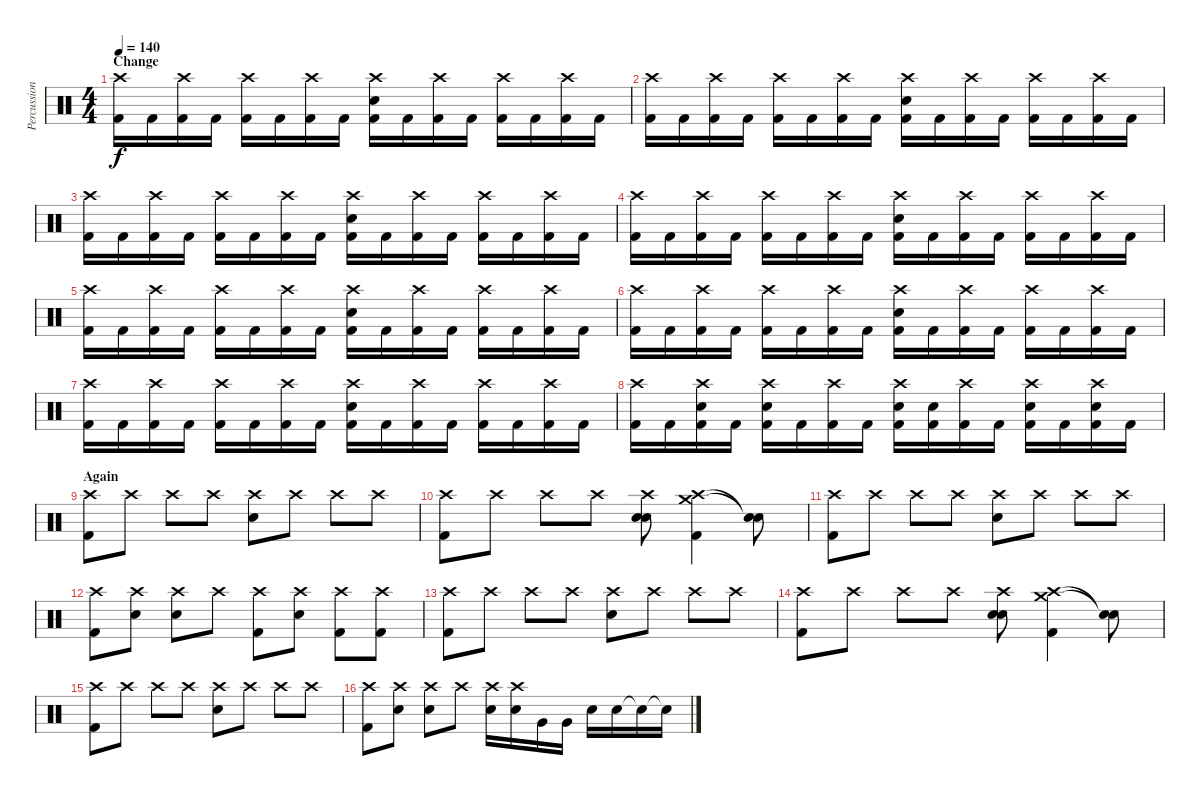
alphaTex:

\track ("Percussion" "Percussion") {instrument percussion}
\staff {score}
\articulation defaults
\ts (4 4)
\section ("" "Change")
\tempo 140
\clef neutral
\ks c
("Crash high (hit)" "Kick (hit) 2").16{dy f} "Kick (hit) 2".16 ("Crash high (hit)" "Kick (hit) 2").16 "Kick (hit) 2".16 ("Crash high (hit)" "Kick (hit) 2").16 "Kick (hit) 2".16 ("Crash high (hit)" "Kick (hit) 2").16 "Kick (hit) 2".16 ("Crash high (hit)" "Electric Snare (hit)" "Kick (hit) 2").16 "Kick (hit) 2".16 ("Crash high (hit)" "Kick (hit) 2").16 "Kick (hit) 2".16 ("Crash high (hit)" "Kick (hit) 2").16 "Kick (hit) 2".16 ("Crash high (hit)" "Kick (hit) 2").16 "Kick (hit) 2".16 |
("Crash high (hit)" "Kick (hit) 2").16 "Kick (hit) 2".16 ("Crash high (hit)" "Kick (hit) 2").16 "Kick (hit) 2".16 ("Crash high (hit)" "Kick (hit) 2").16 "Kick (hit) 2".16 ("Crash high (hit)" "Kick (hit) 2").16 "Kick (hit) 2".16 ("Crash high (hit)" "Electric Snare (hit)" "Kick (hit) 2").16 "Kick (hit) 2".16 ("Crash high (hit)" "Kick (hit) 2").16 "Kick (hit) 2".16 ("Crash high (hit)" "Kick (hit) 2").16 "Kick (hit) 2".16 ("Crash high (hit)" "Kick (hit) 2").16 "Kick (hit) 2".16 |
("Crash high (hit)" "Kick (hit) 2").16 "Kick (hit) 2".16 ("Crash high (hit)" "Kick (hit) 2").16 "Kick (hit) 2".16 ("Crash high (hit)" "Kick (hit) 2").16 "Kick (hit) 2".16 ("Crash high (hit)" "Kick (hit) 2").16 "Kick (hit) 2".16 ("Crash high (hit)" "Electric Snare (hit)" "Kick (hit) 2").16 "Kick (hit) 2".16 ("Crash high (hit)" "Kick (hit) 2").16 "Kick (hit) 2".16 ("Crash high (hit)" "Kick (hit) 2").16 "Kick (hit) 2".16 ("Crash high (hit)" "Kick (hit) 2").16 "Kick (hit) 2".16 |
("Crash high (hit)" "Kick (hit) 2").16 "Kick (hit) 2".16 ("Crash high (hit)" "Kick (hit) 2").16 "Kick (hit) 2".16 ("Crash high (hit)" "Kick (hit) 2").16 "Kick (hit) 2".16 ("Crash high (hit)" "Kick (hit) 2").16 "Kick (hit) 2".16 ("Crash high (hit)" "Electric Snare (hit)" "Kick (hit) 2").16 "Kick (hit) 2".16 ("Crash high (hit)" "Kick (hit) 2").16 "Kick (hit) 2".16 ("Crash high (hit)" "Kick (hit) 2").16 "Kick (hit) 2".16 ("Crash high (hit)" "Kick (hit) 2").16 "Kick (hit) 2".16 |
("Crash high (hit)" "Kick (hit) 2").16 "Kick (hit) 2".16 ("Crash high (hit)" "Kick (hit) 2").16 "Kick (hit) 2".16 ("Crash high (hit)" "Kick (hit) 2").16 "Kick (hit) 2".16 ("Crash high (hit)" "Kick (hit) 2").16 "Kick (hit) 2".16 ("Crash high (hit)" "Electric Snare (hit)" "Kick (hit) 2").16 "Kick (hit) 2".16 ("Crash high (hit)" "Kick (hit) 2").16 "Kick (hit) 2".16 ("Crash high (hit)" "Kick (hit) 2").16 "Kick (hit) 2".16 ("Crash high (hit)" "Kick (hit) 2").16 "Kick (hit) 2".16 |
("Crash high (hit)" "Kick (hit) 2").16 "Kick (hit) 2".16 ("Crash high (hit)" "Kick (hit) 2").16 "Kick (hit) 2".16 ("Crash high (hit)" "Kick (hit) 2").16 "Kick (hit) 2".16 ("Crash high (hit)" "Kick (hit) 2").16 "Kick (hit) 2".16 ("Crash high (hit)" "Electric Snare (hit)" "Kick (hit) 2").16 "Kick (hit) 2".16 ("Crash high (hit)" "Kick (hit) 2").16 "Kick (hit) 2".16 ("Crash high (hit)" "Kick (hit) 2").16 "Kick (hit) 2".16 ("Crash high (hit)" "Kick (hit) 2").16 "Kick (hit) 2".16 |
("Crash high (hit)" "Kick (hit) 2").16 "Kick (hit) 2".16 ("Crash high (hit)" "Kick (hit) 2").16 "Kick (hit) 2".16 ("Crash high (hit)" "Kick (hit) 2").16 "Kick (hit) 2".16 ("Crash high (hit)" "Kick (hit) 2").16 "Kick (hit) 2".16 ("Crash high (hit)" "Electric Snare (hit)" "Kick (hit) 2").16 "Kick (hit) 2".16 ("Crash high (hit)" "Kick (hit) 2").16 "Kick (hit) 2".16 ("Crash high (hit)" "Kick (hit) 2").16 "Kick (hit) 2".16 ("Crash high (hit)" "Kick (hit) 2").16 "Kick (hit) 2".16 |
("Crash high (hit)" "Kick (hit) 2").16 "Kick (hit) 2".16 ("Crash high (hit)" "Electric Snare (hit)" "Kick (hit) 2").16 "Kick (hit) 2".16 ("Crash high (hit)" "Electric Snare (hit)" "Kick (hit) 2").16 "Kick (hit) 2".16 ("Crash high (hit)" "Kick (hit) 2").16 "Kick (hit) 2".16 ("Crash high (hit)" "Electric Snare (hit)" "Kick (hit) 2").16 ("Electric Snare (hit)" "Kick (hit) 2").16 ("Crash high (hit)" "Kick (hit) 2").16 "Kick (hit) 2".16 ("Crash high (hit)" "Electric Snare (hit)" "Kick (hit) 2").16 "Kick (hit) 2".16 ("Crash high (hit)" "Electric Snare (hit)" "Kick (hit) 2").16 "Kick (hit) 2".16 |
\section ("" "Again")
("Crash high (hit)" "Kick (hit) 2").8 "Crash high (hit)"{x}.8 "Crash high (hit)".8 "Crash high (hit)"{x}.8 ("Crash high (hit)" "Electric Snare (hit)").8 "Crash high (hit)"{x}.8 "Crash high (hit)".8 "Crash high (hit)"{x}.8 |
("Crash high (hit)" "Kick (hit) 2").8 "Crash high (hit)"{x}.8 "Crash high (hit)".8 "Crash high (hit)"{x}.8 ("Crash high (hit)" "Electric Snare (hit)" "Snare (hit) 2").8 ("Crash high (hit)"{x} "Crash medium (hit)" "Kick (hit) 2").4 ("Snare (hit)"{t} "Snare (hit)"{t}).8 |
("Crash high (hit)" "Kick (hit) 2").8 "Crash high (hit)"{x}.8 "Crash high (hit)".8 "Crash high (hit)"{x}.8 ("Crash high (hit)" "Electric Snare (hit)").8 "Crash high (hit)"{x}.8 "Crash high (hit)".8 "Crash high (hit)"{x}.8 |
("Crash high (hit)" "Kick (hit) 2").8 ("Crash high (hit)"{x} "Electric Snare (hit)").8 ("Crash high (hit)" "Electric Snare (hit)").8 "Crash high (hit)"{x}.8 ("Crash high (hit)" "Kick (hit) 2").8 ("Crash high (hit)"{x} "Electric Snare (hit)").8 ("Crash high (hit)" "Kick (hit) 2").8 ("Crash high (hit)"{x} "Kick (hit) 2").8 |
("Crash high (hit)" "Kick (hit) 2").8 "Crash high (hit)"{x}.8 "Crash high (hit)".8 "Crash high (hit)"{x}.8 ("Crash high (hit)" "Electric Snare (hit)").8 "Crash high (hit)"{x}.8 "Crash high (hit)".8 "Crash high (hit)"{x}.8 |
("Crash high (hit)" "Kick (hit) 2").8 "Crash high (hit)"{x}.8 "Crash high (hit)".8 "Crash high (hit)"{x}.8 ("Crash high (hit)" "Electric Snare (hit)" "Snare (hit) 2").8 ("Crash high (hit)"{x} "Crash medium (hit)" "Kick (hit) 2").4 ("Snare (hit)"{t} "Snare (hit)"{t}).8 |
("Crash high (hit)" "Kick (hit) 2").8 "Crash high (hit)"{x}.8 "Crash high (hit)".8 "Crash high (hit)"{x}.8 ("Crash high (hit)" "Electric Snare (hit)").8 "Crash high (hit)"{x}.8 "Crash high (hit)".8 "Crash high (hit)"{x}.8 |
("Crash high (hit)" "Kick (hit) 2").8 ("Crash high (hit)"{x} "Electric Snare (hit)").8 ("Crash high (hit)" "Electric Snare (hit)").8 "Crash high (hit)"{x}.8 ("Crash high (hit)" "Electric Snare (hit)").16 ("Crash high (hit)"{x} "Electric Snare (hit)").16 "Very Low Tom (hit)".16 "Very Low Tom (hit)".16 "Electric Snare (hit)".16 "Electric Snare (hit)".16 "Snare (hit)"{t}.16 "Snare (hit)"{t}.16
